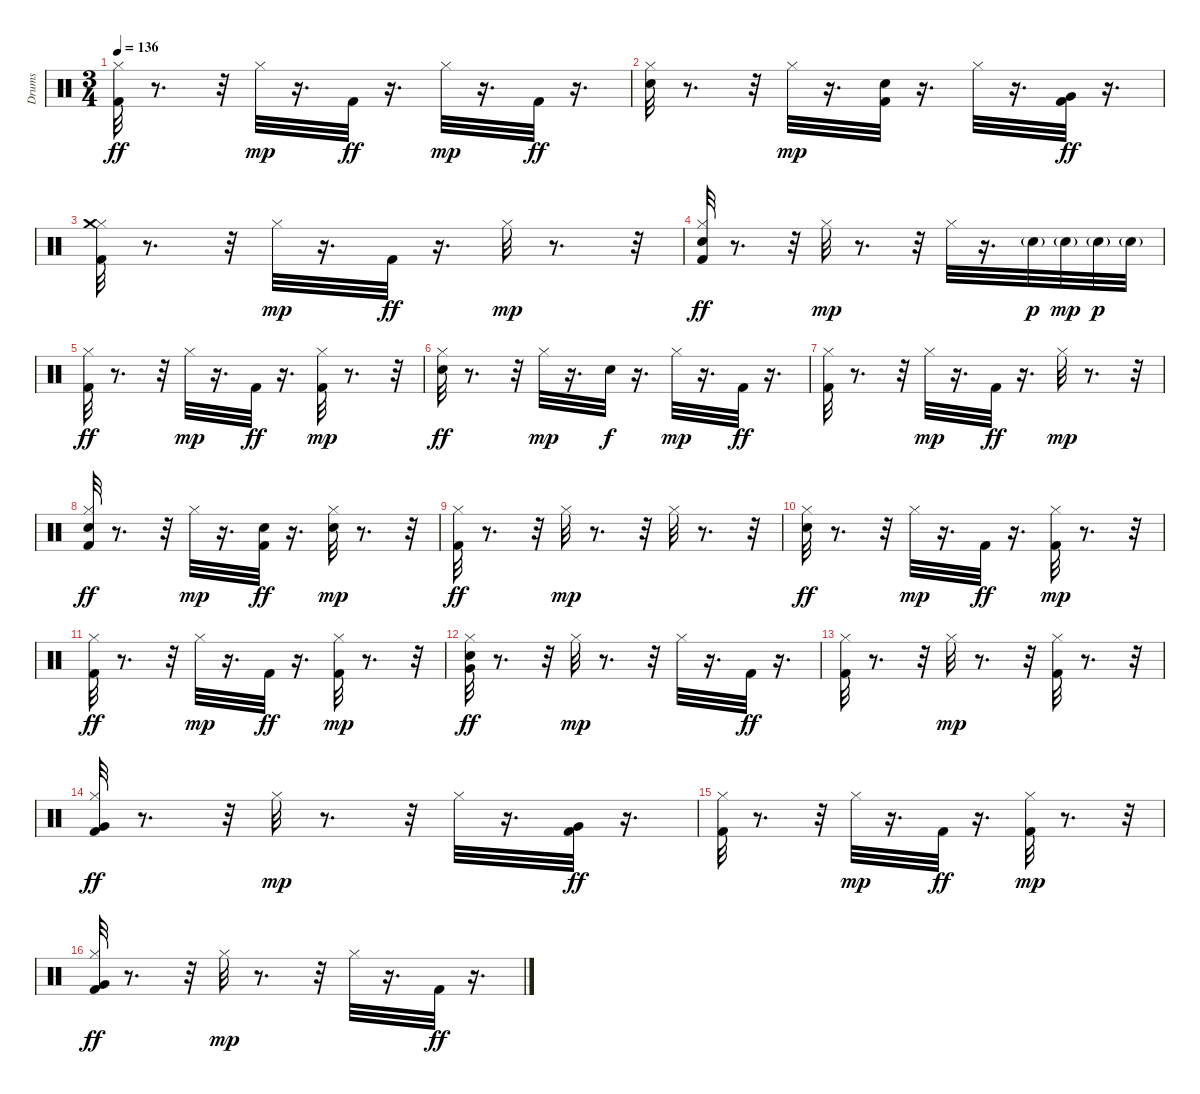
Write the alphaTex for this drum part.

\track ("Drums  " "Drums  ") {instrument percussion}
\staff {score}
\articulation defaults
\ts (3 4)
\tempo 136
\clef neutral
\ks c
("Kick (hit) 2" "Hi-Hat (closed)").32{dy ff} r.8{d} r.32 "Hi-Hat (closed)".32{dy mp} r.16{d} "Kick (hit) 2".32{dy ff} r.16{d} "Hi-Hat (closed)".32{dy mp} r.16{d} "Kick (hit) 2".32{dy ff} r.16{d} |
("Snare (hit) 2" "Hi-Hat (closed)").32 r.8{d} r.32 "Hi-Hat (closed)".32{dy mp} r.16{d} ("Kick (hit) 2" "Snare (hit) 2").32 r.16{d} "Hi-Hat (closed)".32 r.16{d} ("Kick (hit) 2" "Very Low Tom (hit)").32{dy ff} r.16{d} |
("Kick (hit) 2" "Hi-Hat (closed)" "Crash medium (hit)").32 r.8{d} r.32 "Hi-Hat (closed)".32{dy mp} r.16{d} "Kick (hit) 2".32{dy ff} r.16{d} "Hi-Hat (closed)".32{dy mp} r.8{d} r.32 |
("Kick (hit) 2" "Snare (hit) 2" "Hi-Hat (closed)").32{dy ff} r.8{d} r.32 "Hi-Hat (closed)".32{dy mp} r.8{d} r.32 "Hi-Hat (closed)".32 r.16{d} "Snare (hit) 2"{g}.32{dy p} "Snare (hit) 2"{g}.32{dy mp} "Snare (hit) 2"{g}.32{dy p} "Snare (hit) 2"{g}.32 |
("Kick (hit) 2" "Hi-Hat (closed)").32{dy ff} r.8{d} r.32 "Hi-Hat (closed)".32{dy mp} r.16{d} "Kick (hit) 2".32{dy ff} r.16{d} ("Kick (hit) 2" "Hi-Hat (closed)").32{dy mp} r.8{d} r.32 |
("Snare (hit) 2" "Hi-Hat (closed)").32{dy ff} r.8{d} r.32 "Hi-Hat (closed)".32{dy mp} r.16{d} "Snare (hit) 2".32{dy f} r.16{d} "Hi-Hat (closed)".32{dy mp} r.16{d} "Kick (hit) 2".32{dy ff} r.16{d} |
("Kick (hit) 2" "Hi-Hat (closed)").32 r.8{d} r.32 "Hi-Hat (closed)".32{dy mp} r.16{d} "Kick (hit) 2".32{dy ff} r.16{d} "Hi-Hat (closed)".32{dy mp} r.8{d} r.32 |
("Snare (hit) 2" "Kick (hit) 2" "Hi-Hat (closed)").32{dy ff} r.8{d} r.32 "Hi-Hat (closed)".32{dy mp} r.16{d} ("Kick (hit) 2" "Snare (hit) 2").32{dy ff} r.16{d} ("Snare (hit) 2" "Hi-Hat (closed)").32{dy mp} r.8{d} r.32 |
("Kick (hit) 2" "Hi-Hat (closed)").32{dy ff} r.8{d} r.32 "Hi-Hat (closed)".32{dy mp} r.8{d} r.32 "Hi-Hat (closed)".32 r.8{d} r.32 |
("Snare (hit) 2" "Hi-Hat (closed)").32{dy ff} r.8{d} r.32 "Hi-Hat (closed)".32{dy mp} r.16{d} "Kick (hit) 2".32{dy ff} r.16{d} ("Kick (hit) 2" "Hi-Hat (closed)").32{dy mp} r.8{d} r.32 |
("Kick (hit) 2" "Hi-Hat (closed)").32{dy ff} r.8{d} r.32 "Hi-Hat (closed)".32{dy mp} r.16{d} "Kick (hit) 2".32{dy ff} r.16{d} ("Kick (hit) 2" "Hi-Hat (closed)").32{dy mp} r.8{d} r.32 |
("Snare (hit) 2" "Very Low Tom (hit)" "Hi-Hat (closed)").32{dy ff} r.8{d} r.32 "Hi-Hat (closed)".32{dy mp} r.8{d} r.32 "Hi-Hat (closed)".32 r.16{d} "Kick (hit) 2".32{dy ff} r.16{d} |
("Kick (hit) 2" "Hi-Hat (closed)").32 r.8{d} r.32 "Hi-Hat (closed)".32{dy mp} r.8{d} r.32 ("Kick (hit) 2" "Hi-Hat (closed)").32 r.8{d} r.32 |
("Kick (hit) 2" "Very Low Tom (hit)" "Hi-Hat (closed)").32{dy ff} r.8{d} r.32 "Hi-Hat (closed)".32{dy mp} r.8{d} r.32 "Hi-Hat (closed)".32 r.16{d} ("Kick (hit) 2" "Very Low Tom (hit)").32{dy ff} r.16{d} |
("Kick (hit) 2" "Hi-Hat (closed)").32 r.8{d} r.32 "Hi-Hat (closed)".32{dy mp} r.16{d} "Kick (hit) 2".32{dy ff} r.16{d} ("Kick (hit) 2" "Hi-Hat (closed)").32{dy mp} r.8{d} r.32 |
("Kick (hit) 2" "Very Low Tom (hit)" "Hi-Hat (closed)").32{dy ff} r.8{d} r.32 "Hi-Hat (closed)".32{dy mp} r.8{d} r.32 "Hi-Hat (closed)".32 r.16{d} "Kick (hit) 2".32{dy ff} r.16{d}
